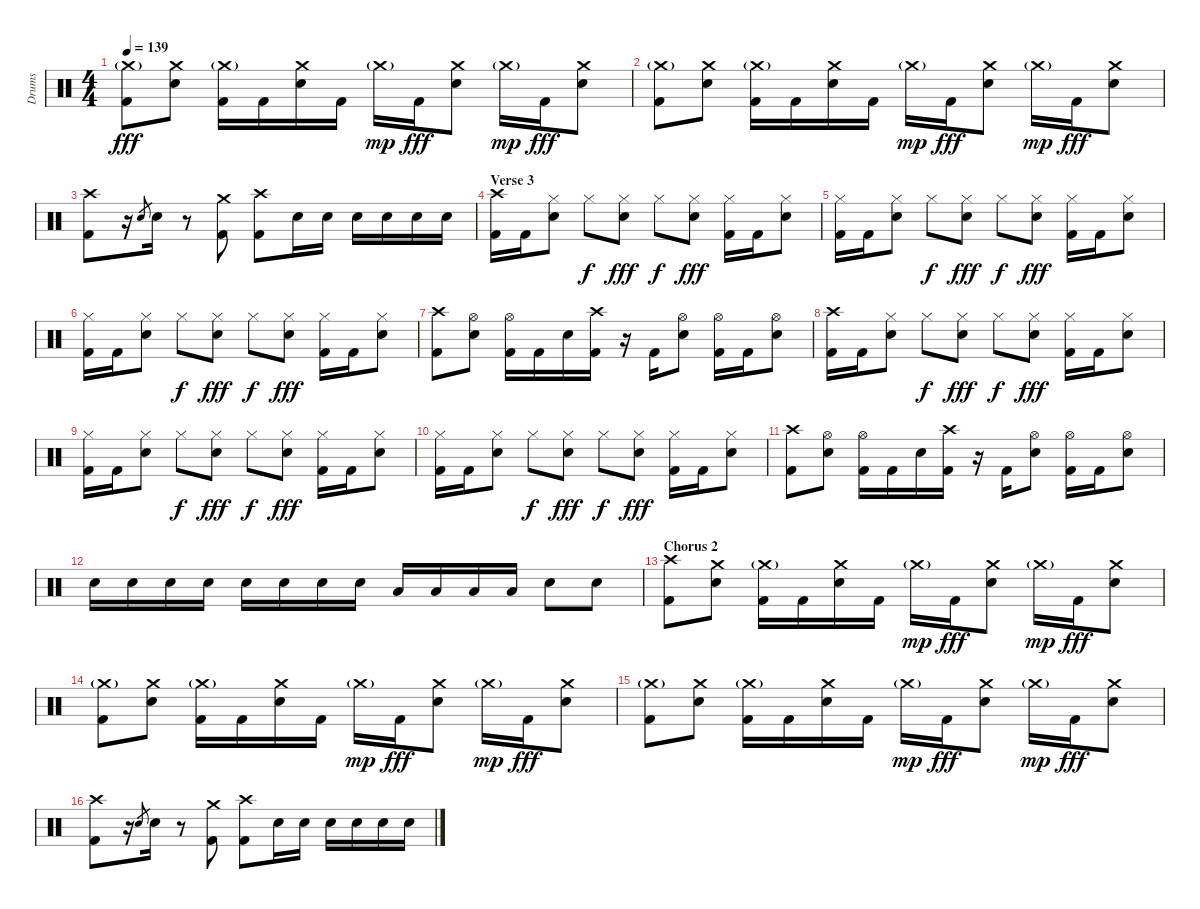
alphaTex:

\track ("Drums" "Drums") {instrument percussion}
\staff {score}
\articulation defaults
\ts (4 4)
\tempo 139
\clef neutral
\ks c
("Crash medium (hit)"{g} "Kick (hit) 2").8{dy fff} ("Crash medium (hit)" "Electric Snare (hit)").8 ("Crash medium (hit)"{g} "Kick (hit) 2").16 "Kick (hit) 2".16 ("Crash medium (hit)" "Electric Snare (hit)").16 "Kick (hit) 2".16 "Crash medium (hit)"{g}.16{dy mp} "Kick (hit) 2".16{dy fff} ("Crash medium (hit)" "Electric Snare (hit)").8 "Crash medium (hit)"{g}.16{dy mp} "Kick (hit) 2".16{dy fff} ("Crash medium (hit)" "Electric Snare (hit)").8 |
("Crash medium (hit)"{g} "Kick (hit) 2").8 ("Crash medium (hit)" "Electric Snare (hit)").8 ("Crash medium (hit)"{g} "Kick (hit) 2").16 "Kick (hit) 2".16 ("Crash medium (hit)" "Electric Snare (hit)").16 "Kick (hit) 2".16 "Crash medium (hit)"{g}.16{dy mp} "Kick (hit) 2".16{dy fff} ("Crash medium (hit)" "Electric Snare (hit)").8 "Crash medium (hit)"{g}.16{dy mp} "Kick (hit) 2".16{dy fff} ("Crash medium (hit)" "Electric Snare (hit)").8 |
("Crash high (hit)" "Kick (hit) 2").8 r.16 "Electric Snare (hit)".8{gr} "Electric Snare (hit)".16 r.8 ("Crash medium (hit)" "Kick (hit) 2").8 ("Crash high (hit)" "Kick (hit) 2").8 "Electric Snare (hit)".16 "Electric Snare (hit)".16 "Electric Snare (hit)".16 "Electric Snare (hit)".16 "Electric Snare (hit)".16 "Electric Snare (hit)".16 |
\section ("" "Verse 3")
("Crash high (hit)" "Kick (hit) 2").16 "Kick (hit) 2".16 ("Hi-Hat (closed)" "Electric Snare (hit)").8 "Hi-Hat (closed)".8{dy f} ("Hi-Hat (closed)" "Electric Snare (hit)").8{dy fff} "Hi-Hat (closed)".8{dy f} ("Hi-Hat (closed)" "Electric Snare (hit)").8{dy fff} ("Hi-Hat (closed)" "Kick (hit) 2").16 "Kick (hit) 2".16 ("Hi-Hat (closed)" "Electric Snare (hit)").8 |
("Hi-Hat (closed)" "Kick (hit) 2").16 "Kick (hit) 2".16 ("Hi-Hat (closed)" "Electric Snare (hit)").8 "Hi-Hat (closed)".8{dy f} ("Hi-Hat (closed)" "Electric Snare (hit)").8{dy fff} "Hi-Hat (closed)".8{dy f} ("Hi-Hat (closed)" "Electric Snare (hit)").8{dy fff} ("Hi-Hat (closed)" "Kick (hit) 2").16 "Kick (hit) 2".16 ("Hi-Hat (closed)" "Electric Snare (hit)").8 |
("Hi-Hat (closed)" "Kick (hit) 2").16 "Kick (hit) 2".16 ("Hi-Hat (closed)" "Electric Snare (hit)").8 "Hi-Hat (closed)".8{dy f} ("Hi-Hat (closed)" "Electric Snare (hit)").8{dy fff} "Hi-Hat (closed)".8{dy f} ("Hi-Hat (closed)" "Electric Snare (hit)").8{dy fff} ("Hi-Hat (closed)" "Kick (hit) 2").16 "Kick (hit) 2".16 ("Hi-Hat (closed)" "Electric Snare (hit)").8 |
("Crash high (hit)" "Kick (hit) 2").8 ("Hi-Hat (open)" "Electric Snare (hit)").8 ("Hi-Hat (open)" "Kick (hit) 2").16 "Kick (hit) 2".16 "Electric Snare (hit)".16 ("Crash high (hit)" "Kick (hit) 2").16 r.16 "Kick (hit) 2".16 ("Hi-Hat (open)" "Electric Snare (hit)").8 ("Hi-Hat (open)" "Kick (hit) 2").16 "Kick (hit) 2".16 ("Hi-Hat (open)" "Electric Snare (hit)").8 |
("Crash high (hit)" "Kick (hit) 2").16 "Kick (hit) 2".16 ("Hi-Hat (closed)" "Electric Snare (hit)").8 "Hi-Hat (closed)".8{dy f} ("Hi-Hat (closed)" "Electric Snare (hit)").8{dy fff} "Hi-Hat (closed)".8{dy f} ("Hi-Hat (closed)" "Electric Snare (hit)").8{dy fff} ("Hi-Hat (closed)" "Kick (hit) 2").16 "Kick (hit) 2".16 ("Hi-Hat (closed)" "Electric Snare (hit)").8 |
("Hi-Hat (closed)" "Kick (hit) 2").16 "Kick (hit) 2".16 ("Hi-Hat (closed)" "Electric Snare (hit)").8 "Hi-Hat (closed)".8{dy f} ("Hi-Hat (closed)" "Electric Snare (hit)").8{dy fff} "Hi-Hat (closed)".8{dy f} ("Hi-Hat (closed)" "Electric Snare (hit)").8{dy fff} ("Hi-Hat (closed)" "Kick (hit) 2").16 "Kick (hit) 2".16 ("Hi-Hat (closed)" "Electric Snare (hit)").8 |
("Hi-Hat (closed)" "Kick (hit) 2").16 "Kick (hit) 2".16 ("Hi-Hat (closed)" "Electric Snare (hit)").8 "Hi-Hat (closed)".8{dy f} ("Hi-Hat (closed)" "Electric Snare (hit)").8{dy fff} "Hi-Hat (closed)".8{dy f} ("Hi-Hat (closed)" "Electric Snare (hit)").8{dy fff} ("Hi-Hat (closed)" "Kick (hit) 2").16 "Kick (hit) 2".16 ("Hi-Hat (closed)" "Electric Snare (hit)").8 |
("Crash high (hit)" "Kick (hit) 2").8 ("Hi-Hat (open)" "Electric Snare (hit)").8 ("Hi-Hat (open)" "Kick (hit) 2").16 "Kick (hit) 2".16 "Electric Snare (hit)".16 ("Crash high (hit)" "Kick (hit) 2").16 r.16 "Kick (hit) 2".16 ("Hi-Hat (open)" "Electric Snare (hit)").8 ("Hi-Hat (open)" "Kick (hit) 2").16 "Kick (hit) 2".16 ("Hi-Hat (open)" "Electric Snare (hit)").8 |
"Electric Snare (hit)".16 "Electric Snare (hit)".16 "Electric Snare (hit)".16 "Electric Snare (hit)".16 "Electric Snare (hit)".16 "Electric Snare (hit)".16 "Electric Snare (hit)".16 "Electric Snare (hit)".16 "Low Tom (hit)".16 "Low Tom (hit)".16 "Low Tom (hit)".16 "Low Tom (hit)".16 "Electric Snare (hit)".8 "Electric Snare (hit)".8 |
\section ("" "Chorus 2")
("Crash high (hit)" "Kick (hit) 2").8 ("Crash medium (hit)" "Electric Snare (hit)").8 ("Crash medium (hit)"{g} "Kick (hit) 2").16 "Kick (hit) 2".16 ("Crash medium (hit)" "Electric Snare (hit)").16 "Kick (hit) 2".16 "Crash medium (hit)"{g}.16{dy mp} "Kick (hit) 2".16{dy fff} ("Crash medium (hit)" "Electric Snare (hit)").8 "Crash medium (hit)"{g}.16{dy mp} "Kick (hit) 2".16{dy fff} ("Crash medium (hit)" "Electric Snare (hit)").8 |
("Crash medium (hit)"{g} "Kick (hit) 2").8 ("Crash medium (hit)" "Electric Snare (hit)").8 ("Crash medium (hit)"{g} "Kick (hit) 2").16 "Kick (hit) 2".16 ("Crash medium (hit)" "Electric Snare (hit)").16 "Kick (hit) 2".16 "Crash medium (hit)"{g}.16{dy mp} "Kick (hit) 2".16{dy fff} ("Crash medium (hit)" "Electric Snare (hit)").8 "Crash medium (hit)"{g}.16{dy mp} "Kick (hit) 2".16{dy fff} ("Crash medium (hit)" "Electric Snare (hit)").8 |
("Crash medium (hit)"{g} "Kick (hit) 2").8 ("Crash medium (hit)" "Electric Snare (hit)").8 ("Crash medium (hit)"{g} "Kick (hit) 2").16 "Kick (hit) 2".16 ("Crash medium (hit)" "Electric Snare (hit)").16 "Kick (hit) 2".16 "Crash medium (hit)"{g}.16{dy mp} "Kick (hit) 2".16{dy fff} ("Crash medium (hit)" "Electric Snare (hit)").8 "Crash medium (hit)"{g}.16{dy mp} "Kick (hit) 2".16{dy fff} ("Crash medium (hit)" "Electric Snare (hit)").8 |
("Crash high (hit)" "Kick (hit) 2").8 r.16 "Electric Snare (hit)".8{gr} "Electric Snare (hit)".16 r.8 ("Crash medium (hit)" "Kick (hit) 2").8 ("Crash high (hit)" "Kick (hit) 2").8 "Electric Snare (hit)".16 "Electric Snare (hit)".16 "Electric Snare (hit)".16 "Electric Snare (hit)".16 "Electric Snare (hit)".16 "Electric Snare (hit)".16
